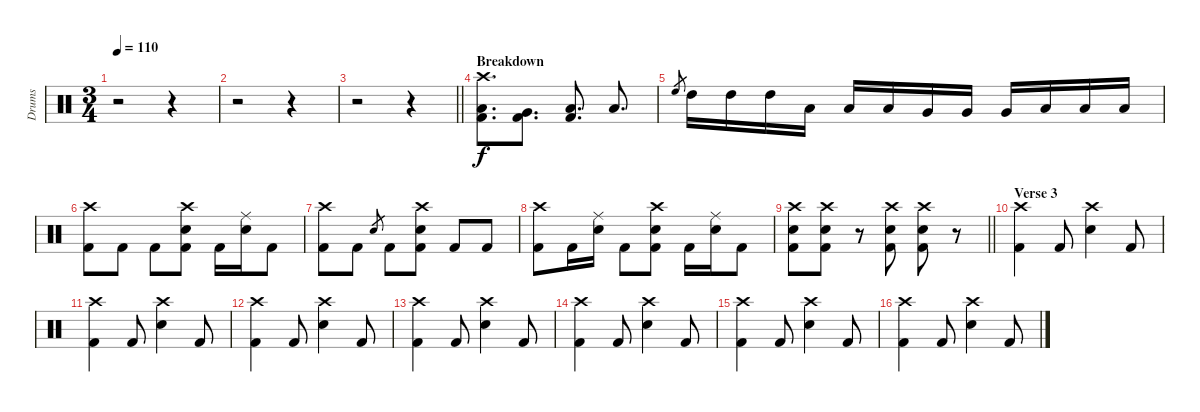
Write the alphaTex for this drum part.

\track ("Drums" "Drums") {instrument percussion}
\staff {score}
\articulation defaults
\ts (3 4)
\tempo 110
\clef neutral
\ks c
r.2{dy f} r.4 |
r.2 r.4 |
\barLineRight lightlight
r.2 r.4 |
\section ("" "Breakdown")
("Crash high (hit)" "Low Tom (hit)" "Kick (hit) 2").8{d} ("Very Low Tom (hit)" "Kick (hit) 2").8{d} ("Low Floor Tom (hit)" "Kick (hit) 2").8{d} "Low Tom (hit)".8{d} |
"High Floor Tom (hit)".8{gr} "High Tom (hit)".16 "High Tom (hit)".16 "High Tom (hit)".16 "Low Tom (hit)".16 "Low Tom (hit)".16 "Low Tom (hit)".16 "Very Low Tom (hit)".16 "Very Low Tom (hit)".16 "Very Low Tom (hit)".16 "Low Floor Tom (hit)".16 "Low Floor Tom (hit)".16 "Low Floor Tom (hit)".16 |
("Crash high (hit)" "Kick (hit) 2").8 "Kick (hit) 2".8 "Kick (hit) 2".8 ("Crash high (hit)" "Snare (hit) 2" "Kick (hit) 2").8 "Kick (hit) 2".16 ("Ride (middle)" "Snare (hit) 2").16 "Kick (hit) 2".8 |
("Crash high (hit)" "Kick (hit) 2").8 "Kick (hit) 2".8 "Snare (hit) 2".8{gr} "Kick (hit) 2".8 ("Crash high (hit)" "Snare (hit) 2" "Kick (hit) 2").8 "Kick (hit) 2".8 "Kick (hit) 2".8 |
("Crash high (hit)" "Kick (hit) 2").8 "Kick (hit) 2".16 ("Ride (middle)" "Snare (hit) 2").16 "Kick (hit) 2".8 ("Crash high (hit)" "Snare (hit) 2" "Kick (hit) 2").8 "Kick (hit) 2".16 ("Ride (middle)" "Snare (hit) 2").16 "Kick (hit) 2".8 |
\barLineRight lightlight
("Crash high (hit)" "Snare (hit) 2" "Kick (hit) 2").8 ("Crash high (hit)" "Snare (hit) 2" "Kick (hit) 2").8 r.8 ("Crash high (hit)" "Snare (hit) 2" "Kick (hit) 2").8 ("Crash high (hit)" "Snare (hit) 2" "Kick (hit) 2").8 r.8 |
\section ("" "Verse 3")
("Crash high (hit)" "Kick (hit) 2").4 "Kick (hit) 2".8 ("Crash high (hit)" "Snare (hit) 2").4 "Kick (hit) 2".8 |
("Crash high (hit)" "Kick (hit) 2").4 "Kick (hit) 2".8 ("Crash high (hit)" "Snare (hit) 2").4 "Kick (hit) 2".8 |
("Crash high (hit)" "Kick (hit) 2").4 "Kick (hit) 2".8 ("Crash high (hit)" "Snare (hit) 2").4 "Kick (hit) 2".8 |
("Crash high (hit)" "Kick (hit) 2").4 "Kick (hit) 2".8 ("Crash high (hit)" "Snare (hit) 2").4 "Kick (hit) 2".8 |
("Crash high (hit)" "Kick (hit) 2").4 "Kick (hit) 2".8 ("Crash high (hit)" "Snare (hit) 2").4 "Kick (hit) 2".8 |
("Crash high (hit)" "Kick (hit) 2").4 "Kick (hit) 2".8 ("Crash high (hit)" "Snare (hit) 2").4 "Kick (hit) 2".8 |
("Crash high (hit)" "Kick (hit) 2").4 "Kick (hit) 2".8 ("Crash high (hit)" "Snare (hit) 2").4 "Kick (hit) 2".8
